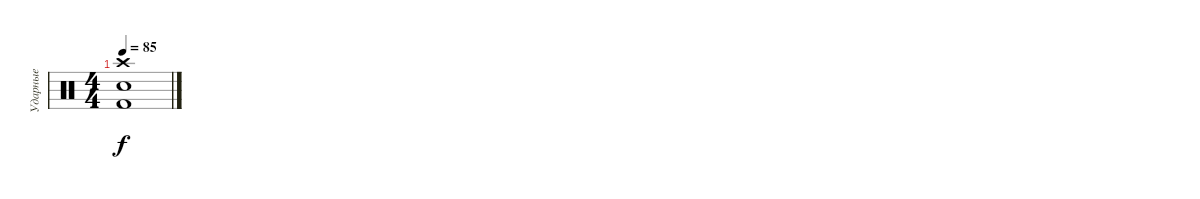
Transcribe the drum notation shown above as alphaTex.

\track ("Ударные" "Ударные") {instrument percussion}
\staff {score}
\articulation defaults
\ts (4 4)
\tempo 85
\clef neutral
\ks c
("Crash high (hit)" "Electric Snare (hit)" "Kick (hit) 2").1{dy f}
